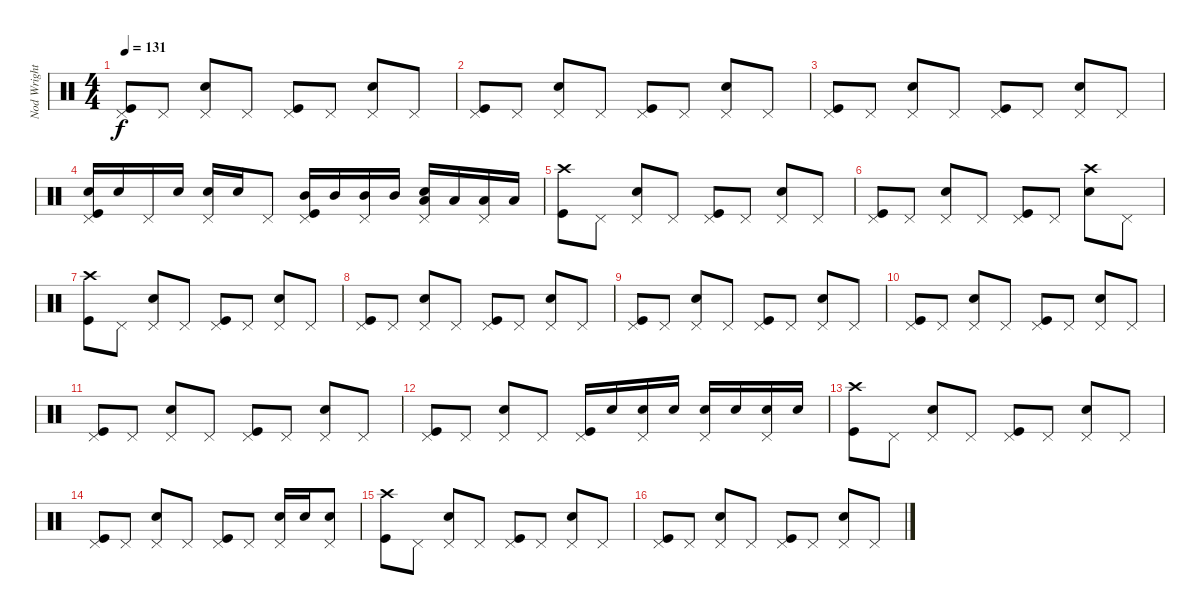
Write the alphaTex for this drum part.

\track ("Nod Wright" "Nod Wright") {instrument percussion}
\staff {score}
\articulation defaults
\ts (4 4)
\tempo 131
\clef neutral
\ks c
("Pedal Hi-Hat (hit)" "Kick (hit)").8{dy f} "Pedal Hi-Hat (hit)".8 ("Pedal Hi-Hat (hit)" "Snare (hit) 2").8 "Pedal Hi-Hat (hit)".8 ("Pedal Hi-Hat (hit)" "Kick (hit)").8 "Pedal Hi-Hat (hit)".8 ("Pedal Hi-Hat (hit)" "Snare (hit) 2").8 "Pedal Hi-Hat (hit)".8 |
("Pedal Hi-Hat (hit)" "Kick (hit)").8 "Pedal Hi-Hat (hit)".8 ("Pedal Hi-Hat (hit)" "Snare (hit) 2").8 "Pedal Hi-Hat (hit)".8 ("Pedal Hi-Hat (hit)" "Kick (hit)").8 "Pedal Hi-Hat (hit)".8 ("Pedal Hi-Hat (hit)" "Snare (hit) 2").8 "Pedal Hi-Hat (hit)".8 |
("Pedal Hi-Hat (hit)" "Kick (hit)").8 "Pedal Hi-Hat (hit)".8 ("Pedal Hi-Hat (hit)" "Snare (hit) 2").8 "Pedal Hi-Hat (hit)".8 ("Pedal Hi-Hat (hit)" "Kick (hit)").8 "Pedal Hi-Hat (hit)".8 ("Pedal Hi-Hat (hit)" "Snare (hit) 2").8 "Pedal Hi-Hat (hit)".8 |
("Pedal Hi-Hat (hit)" "Snare (hit) 2" "Kick (hit)").16 "Snare (hit) 2".16 "Pedal Hi-Hat (hit)".16 "Snare (hit) 2".16 ("Pedal Hi-Hat (hit)" "Snare (hit) 2").16 "Snare (hit) 2".16 "Pedal Hi-Hat (hit)".8 ("Pedal Hi-Hat (hit)" "Mid Tom (hit)" "Kick (hit)").16 "Mid Tom (hit)".16 ("Pedal Hi-Hat (hit)" "Mid Tom (hit)").16 "Mid Tom (hit)".16 ("Pedal Hi-Hat (hit)" "Low Tom (hit)" "Snare (hit) 2").16 "Low Tom (hit)".16 ("Pedal Hi-Hat (hit)" "Low Tom (hit)").16 "Low Tom (hit)".16 |
("Crash high (hit)" "Kick (hit)").8 "Pedal Hi-Hat (hit)".8 ("Pedal Hi-Hat (hit)" "Snare (hit) 2").8 "Pedal Hi-Hat (hit)".8 ("Pedal Hi-Hat (hit)" "Kick (hit)").8 "Pedal Hi-Hat (hit)".8 ("Pedal Hi-Hat (hit)" "Snare (hit) 2").8 "Pedal Hi-Hat (hit)".8 |
("Pedal Hi-Hat (hit)" "Kick (hit)").8 "Pedal Hi-Hat (hit)".8 ("Pedal Hi-Hat (hit)" "Snare (hit) 2").8 "Pedal Hi-Hat (hit)".8 ("Pedal Hi-Hat (hit)" "Kick (hit)").8 "Pedal Hi-Hat (hit)".8 ("Crash high (hit)" "Snare (hit) 2").8 "Pedal Hi-Hat (hit)".8 |
("Crash high (hit)" "Kick (hit)").8 "Pedal Hi-Hat (hit)".8 ("Pedal Hi-Hat (hit)" "Snare (hit) 2").8 "Pedal Hi-Hat (hit)".8 ("Pedal Hi-Hat (hit)" "Kick (hit)").8 "Pedal Hi-Hat (hit)".8 ("Pedal Hi-Hat (hit)" "Snare (hit) 2").8 "Pedal Hi-Hat (hit)".8 |
("Pedal Hi-Hat (hit)" "Kick (hit)").8 "Pedal Hi-Hat (hit)".8 ("Pedal Hi-Hat (hit)" "Snare (hit) 2").8 "Pedal Hi-Hat (hit)".8 ("Pedal Hi-Hat (hit)" "Kick (hit)").8 "Pedal Hi-Hat (hit)".8 ("Pedal Hi-Hat (hit)" "Snare (hit) 2").8 "Pedal Hi-Hat (hit)".8 |
("Pedal Hi-Hat (hit)" "Kick (hit)").8 "Pedal Hi-Hat (hit)".8 ("Pedal Hi-Hat (hit)" "Snare (hit) 2").8 "Pedal Hi-Hat (hit)".8 ("Pedal Hi-Hat (hit)" "Kick (hit)").8 "Pedal Hi-Hat (hit)".8 ("Pedal Hi-Hat (hit)" "Snare (hit) 2").8 "Pedal Hi-Hat (hit)".8 |
("Pedal Hi-Hat (hit)" "Kick (hit)").8 "Pedal Hi-Hat (hit)".8 ("Pedal Hi-Hat (hit)" "Snare (hit) 2").8 "Pedal Hi-Hat (hit)".8 ("Pedal Hi-Hat (hit)" "Kick (hit)").8 "Pedal Hi-Hat (hit)".8 ("Pedal Hi-Hat (hit)" "Snare (hit) 2").8 "Pedal Hi-Hat (hit)".8 |
("Pedal Hi-Hat (hit)" "Kick (hit)").8 "Pedal Hi-Hat (hit)".8 ("Pedal Hi-Hat (hit)" "Snare (hit) 2").8 "Pedal Hi-Hat (hit)".8 ("Pedal Hi-Hat (hit)" "Kick (hit)").8 "Pedal Hi-Hat (hit)".8 ("Pedal Hi-Hat (hit)" "Snare (hit) 2").8 "Pedal Hi-Hat (hit)".8 |
("Pedal Hi-Hat (hit)" "Kick (hit)").8 "Pedal Hi-Hat (hit)".8 ("Pedal Hi-Hat (hit)" "Snare (hit) 2").8 "Pedal Hi-Hat (hit)".8 ("Pedal Hi-Hat (hit)" "Kick (hit)").16 "Snare (hit) 2".16 ("Pedal Hi-Hat (hit)" "Snare (hit) 2").16 "Snare (hit) 2".16 ("Pedal Hi-Hat (hit)" "Snare (hit) 2").16 "Snare (hit) 2".16 ("Pedal Hi-Hat (hit)" "Snare (hit) 2").16 "Snare (hit) 2".16 |
("Crash high (hit)" "Kick (hit)").8 "Pedal Hi-Hat (hit)".8 ("Pedal Hi-Hat (hit)" "Snare (hit) 2").8 "Pedal Hi-Hat (hit)".8 ("Pedal Hi-Hat (hit)" "Kick (hit)").8 "Pedal Hi-Hat (hit)".8 ("Pedal Hi-Hat (hit)" "Snare (hit) 2").8 "Pedal Hi-Hat (hit)".8 |
("Pedal Hi-Hat (hit)" "Kick (hit)").8 "Pedal Hi-Hat (hit)".8 ("Pedal Hi-Hat (hit)" "Snare (hit) 2").8 "Pedal Hi-Hat (hit)".8 ("Pedal Hi-Hat (hit)" "Kick (hit)").8 "Pedal Hi-Hat (hit)".8 ("Pedal Hi-Hat (hit)" "Snare (hit) 2").16 "Snare (hit) 2".16 ("Pedal Hi-Hat (hit)" "Snare (hit) 2").8 |
("Crash high (hit)" "Kick (hit)").8 "Pedal Hi-Hat (hit)".8 ("Pedal Hi-Hat (hit)" "Snare (hit) 2").8 "Pedal Hi-Hat (hit)".8 ("Pedal Hi-Hat (hit)" "Kick (hit)").8 "Pedal Hi-Hat (hit)".8 ("Pedal Hi-Hat (hit)" "Snare (hit) 2").8 "Pedal Hi-Hat (hit)".8 |
("Pedal Hi-Hat (hit)" "Kick (hit)").8 "Pedal Hi-Hat (hit)".8 ("Pedal Hi-Hat (hit)" "Snare (hit) 2").8 "Pedal Hi-Hat (hit)".8 ("Pedal Hi-Hat (hit)" "Kick (hit)").8 "Pedal Hi-Hat (hit)".8 ("Pedal Hi-Hat (hit)" "Snare (hit) 2").8 "Pedal Hi-Hat (hit)".8
